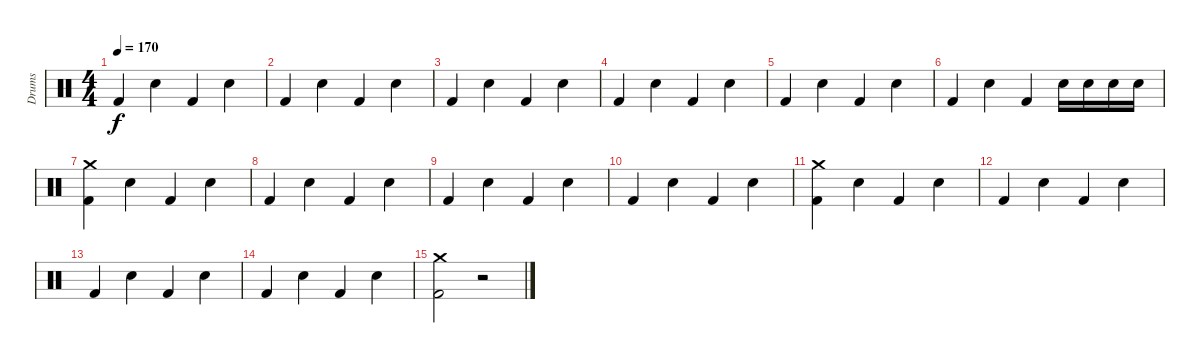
\track ("Drums" "Drums") {instrument percussion}
\staff {score}
\articulation defaults
\ts (4 4)
\tempo 170
\clef neutral
\ks c "Kick (hit) 2".4{dy f} "Snare (hit) 2".4 "Kick (hit) 2".4 "Snare (hit) 2".4
|
"Kick (hit) 2".4 "Snare (hit) 2".4 "Kick (hit) 2".4 "Snare (hit) 2".4 |
"Kick (hit) 2".4 "Snare (hit) 2".4 "Kick (hit) 2".4 "Snare (hit) 2".4 |
"Kick (hit) 2".4 "Snare (hit) 2".4 "Kick (hit) 2".4 "Snare (hit) 2".4 |
"Kick (hit) 2".4 "Snare (hit) 2".4 "Kick (hit) 2".4 "Snare (hit) 2".4 |
"Kick (hit) 2".4 "Snare (hit) 2".4 "Kick (hit) 2".4 "Snare (hit) 2".16 "Snare (hit) 2".16 "Snare (hit) 2".16 "Snare (hit) 2".16 |
("Crash medium (hit)" "Kick (hit) 2").4 "Snare (hit) 2".4 "Kick (hit) 2".4 "Snare (hit) 2".4 |
"Kick (hit) 2".4 "Snare (hit) 2".4 "Kick (hit) 2".4 "Snare (hit) 2".4 |
"Kick (hit) 2".4 "Snare (hit) 2".4 "Kick (hit) 2".4 "Snare (hit) 2".4 |
"Kick (hit) 2".4 "Snare (hit) 2".4 "Kick (hit) 2".4 "Snare (hit) 2".4 |
("Crash medium (hit)" "Kick (hit) 2").4 "Snare (hit) 2".4 "Kick (hit) 2".4 "Snare (hit) 2".4 |
"Kick (hit) 2".4 "Snare (hit) 2".4 "Kick (hit) 2".4 "Snare (hit) 2".4 |
"Kick (hit) 2".4 "Snare (hit) 2".4 "Kick (hit) 2".4 "Snare (hit) 2".4 |
"Kick (hit) 2".4 "Snare (hit) 2".4 "Kick (hit) 2".4 "Snare (hit) 2".4 |
("Kick (hit) 2" "Crash medium (hit)").2 r.2
